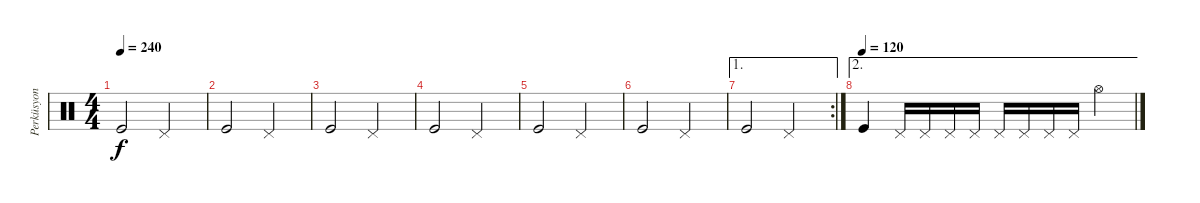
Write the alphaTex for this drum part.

\track ("Perküsyon" "Perküsyon") {instrument percussion}
\staff {score}
\articulation defaults
\ts (4 4)
\tempo 240
\clef neutral
\ks c "Kick (hit)".2{dy f} "Pedal Hi-Hat (hit)".2
|
"Kick (hit)".2 "Pedal Hi-Hat (hit)".2 |
"Kick (hit)".2 "Pedal Hi-Hat (hit)".2 |
"Kick (hit)".2 "Pedal Hi-Hat (hit)".2 |
"Kick (hit)".2 "Pedal Hi-Hat (hit)".2 |
"Kick (hit)".2 "Pedal Hi-Hat (hit)".2 |
\ae 1
\rc 2 "Kick (hit)".2 "Pedal Hi-Hat (hit)".2
|
\ae 2
\tempo (120)
"Kick (hit)".4 "Pedal Hi-Hat (hit)".16 "Pedal Hi-Hat (hit)".16 "Pedal Hi-Hat (hit)".16 "Pedal Hi-Hat (hit)".16 "Pedal Hi-Hat (hit)".16 "Pedal Hi-Hat (hit)".16 "Pedal Hi-Hat (hit)".16 "Pedal Hi-Hat (hit)".16 "Hi-Hat (open)".4
